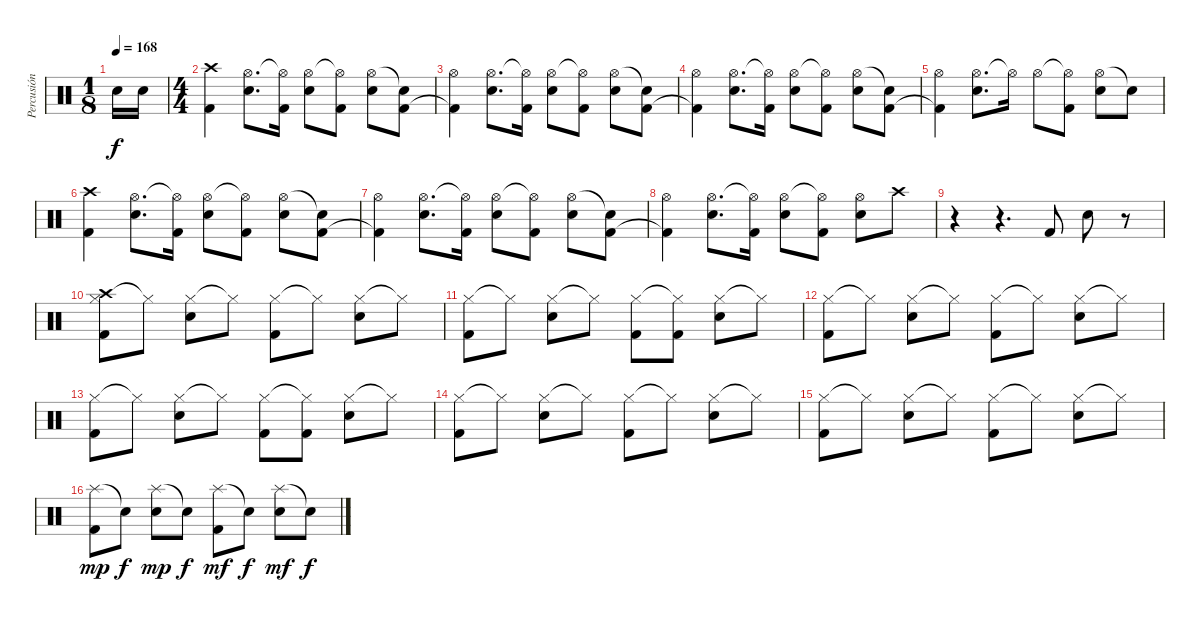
\track ("Percusión" "Percusión") {instrument percussion}
\staff {score}
\articulation defaults
\ts (1 8)
\tempo 168
\clef neutral
\ks c "Snare (hit) 2".16{dy f} "Snare (hit) 2".16
|
\ts (4 4)
("Crash high (hit)" "Kick (hit) 2").4 ("Hi-Hat (open)" "Snare (hit) 2").8{d} ("Hi-Hat (open)"{t} "Kick (hit) 2").16 ("Hi-Hat (open)" "Snare (hit) 2").8 ("Hi-Hat (open)"{t} "Kick (hit) 2").8 ("Hi-Hat (open)" "Snare (hit) 2").8 ("Snare (hit)"{t} "Kick (hit) 2").8 |
("Hi-Hat (open)" "Kick (hit) 2"{t}).4 ("Hi-Hat (open)" "Snare (hit) 2").8{d} ("Hi-Hat (open)"{t} "Kick (hit) 2").16 ("Hi-Hat (open)" "Snare (hit) 2").8 ("Hi-Hat (open)"{t} "Kick (hit) 2").8 ("Hi-Hat (open)" "Snare (hit) 2").8 ("Snare (hit)"{t} "Kick (hit) 2").8 |
("Hi-Hat (open)" "Kick (hit) 2"{t}).4 ("Hi-Hat (open)" "Snare (hit) 2").8{d} ("Hi-Hat (open)"{t} "Kick (hit) 2").16 ("Hi-Hat (open)" "Snare (hit) 2").8 ("Hi-Hat (open)"{t} "Kick (hit) 2").8 ("Hi-Hat (open)" "Snare (hit) 2").8 ("Snare (hit)"{t} "Kick (hit) 2").8 |
("Hi-Hat (open)" "Kick (hit) 2"{t}).4 ("Hi-Hat (open)" "Snare (hit) 2").8{d} "Hi-Hat (open)"{t}.16 "Hi-Hat (open)".8 ("Hi-Hat (open)"{t} "Kick (hit) 2").8 ("Hi-Hat (open)" "Snare (hit) 2").8 "Snare (hit)"{t}.8 |
("Crash high (hit)" "Kick (hit) 2").4 ("Hi-Hat (open)" "Snare (hit) 2").8{d} ("Hi-Hat (open)"{t} "Kick (hit) 2").16 ("Hi-Hat (open)" "Snare (hit) 2").8 ("Hi-Hat (open)"{t} "Kick (hit) 2").8 ("Hi-Hat (open)" "Snare (hit) 2").8 ("Snare (hit)"{t} "Kick (hit) 2").8 |
("Hi-Hat (open)" "Kick (hit) 2"{t}).4 ("Hi-Hat (open)" "Snare (hit) 2").8{d} ("Hi-Hat (open)"{t} "Kick (hit) 2").16 ("Hi-Hat (open)" "Snare (hit) 2").8 ("Hi-Hat (open)"{t} "Kick (hit) 2").8 ("Hi-Hat (open)" "Snare (hit) 2").8 ("Snare (hit)"{t} "Kick (hit) 2").8 |
("Hi-Hat (open)" "Kick (hit) 2"{t}).4 ("Hi-Hat (open)" "Snare (hit) 2").8{d} ("Hi-Hat (open)"{t} "Kick (hit) 2").16 ("Hi-Hat (open)" "Snare (hit) 2").8 ("Hi-Hat (open)"{t} "Kick (hit) 2").8 ("Hi-Hat (open)" "Snare (hit) 2").8 "Crash high (hit)".8 |
r.4 r.4{d} "Kick (hit) 2".8 "Snare (hit) 2".8 r.8 |
("Crash high (hit)" "Hi-Hat (closed)" "Kick (hit) 2").8 "Hi-Hat (closed)"{t}.8 ("Hi-Hat (closed)" "Snare (hit) 2").8 "Hi-Hat (closed)"{t}.8 ("Hi-Hat (closed)" "Kick (hit) 2").8 "Hi-Hat (closed)"{t}.8 ("Hi-Hat (closed)" "Snare (hit) 2").8 "Hi-Hat (closed)"{t}.8 |
("Hi-Hat (closed)" "Kick (hit) 2").8 "Hi-Hat (closed)"{t}.8 ("Hi-Hat (closed)" "Snare (hit) 2").8 "Hi-Hat (closed)"{t}.8 ("Hi-Hat (closed)" "Kick (hit) 2").8 ("Hi-Hat (closed)"{t} "Kick (hit) 2").8 ("Hi-Hat (closed)" "Snare (hit) 2").8 "Hi-Hat (closed)"{t}.8 |
("Hi-Hat (closed)" "Kick (hit) 2").8 "Hi-Hat (closed)"{t}.8 ("Hi-Hat (closed)" "Snare (hit) 2").8 "Hi-Hat (closed)"{t}.8 ("Hi-Hat (closed)" "Kick (hit) 2").8 "Hi-Hat (closed)"{t}.8 ("Hi-Hat (closed)" "Snare (hit) 2").8 "Hi-Hat (closed)"{t}.8 |
("Hi-Hat (closed)" "Kick (hit) 2").8 "Hi-Hat (closed)"{t}.8 ("Hi-Hat (closed)" "Snare (hit) 2").8 "Hi-Hat (closed)"{t}.8 ("Hi-Hat (closed)" "Kick (hit) 2").8 ("Hi-Hat (closed)"{t} "Kick (hit) 2").8 ("Hi-Hat (closed)" "Snare (hit) 2").8 "Hi-Hat (closed)"{t}.8 |
("Hi-Hat (closed)" "Kick (hit) 2").8 "Hi-Hat (closed)"{t}.8 ("Hi-Hat (closed)" "Snare (hit) 2").8 "Hi-Hat (closed)"{t}.8 ("Hi-Hat (closed)" "Kick (hit) 2").8 "Hi-Hat (closed)"{t}.8 ("Hi-Hat (closed)" "Snare (hit) 2").8 "Hi-Hat (closed)"{t}.8 |
("Hi-Hat (closed)" "Kick (hit) 2").8 "Hi-Hat (closed)"{t}.8 ("Hi-Hat (closed)" "Snare (hit) 2").8 "Hi-Hat (closed)"{t}.8 ("Hi-Hat (closed)" "Kick (hit) 2").8 "Hi-Hat (closed)"{t}.8 ("Hi-Hat (closed)" "Snare (hit) 2").8 "Hi-Hat (closed)"{t}.8 |
("Splash (hit)" "Kick (hit) 2").8{dy mp} "Snare (hit)"{t}.8{dy f} ("Splash (hit)" "Snare (hit) 2").8{dy mp} "Snare (hit)"{t}.8{dy f} ("Splash (hit)" "Kick (hit) 2").8{dy mf} "Snare (hit)"{t}.8{dy f} ("Splash (hit)" "Snare (hit) 2").8{dy mf} "Snare (hit)"{t}.8{dy f}
